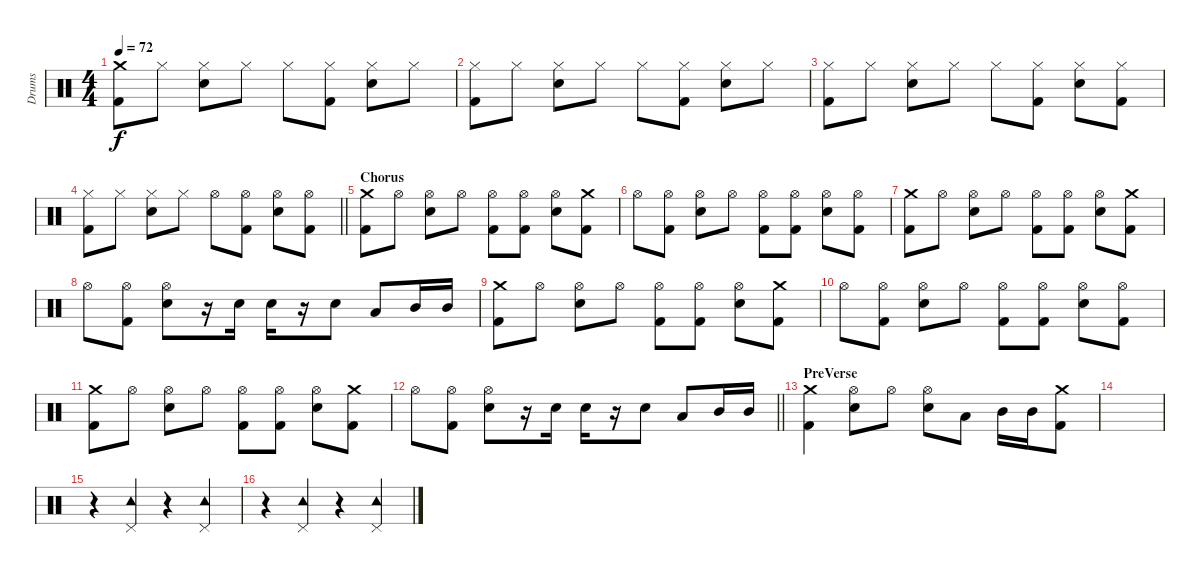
\track ("Drums" "Drums") {instrument percussion}
\staff {score}
\articulation defaults
\ts (4 4)
\tempo 72
\clef neutral
\ks c
("Crash medium (hit)" "Kick (hit) 2").8{dy f} "Hi-Hat (closed)".8 ("Hi-Hat (closed)" "Snare (hit) 2").8 "Hi-Hat (closed)".8 "Hi-Hat (closed)".8 ("Hi-Hat (closed)" "Kick (hit) 2").8 ("Hi-Hat (closed)" "Snare (hit) 2").8 "Hi-Hat (closed)".8 |
("Hi-Hat (closed)" "Kick (hit) 2").8 "Hi-Hat (closed)".8 ("Hi-Hat (closed)" "Snare (hit) 2").8 "Hi-Hat (closed)".8 "Hi-Hat (closed)".8 ("Hi-Hat (closed)" "Kick (hit) 2").8 ("Hi-Hat (closed)" "Snare (hit) 2").8 "Hi-Hat (closed)".8 |
("Hi-Hat (closed)" "Kick (hit) 2").8 "Hi-Hat (closed)".8 ("Hi-Hat (closed)" "Snare (hit) 2").8 "Hi-Hat (closed)".8 "Hi-Hat (closed)".8 ("Hi-Hat (closed)" "Kick (hit) 2").8 ("Hi-Hat (closed)" "Snare (hit) 2").8 ("Hi-Hat (closed)" "Kick (hit) 2").8 |
\barLineRight lightlight
("Hi-Hat (closed)" "Kick (hit) 2").8 "Hi-Hat (closed)".8 ("Hi-Hat (closed)" "Snare (hit) 2").8 "Hi-Hat (closed)".8 "Hi-Hat (open)".8 ("Hi-Hat (open)" "Kick (hit) 2").8 ("Hi-Hat (open)" "Snare (hit) 2").8 ("Hi-Hat (open)" "Kick (hit) 2").8 |
\section ("" "Chorus")
("Crash medium (hit)" "Kick (hit) 2").8 "Hi-Hat (open)".8 ("Hi-Hat (open)" "Snare (hit) 2").8 "Hi-Hat (open)".8 ("Hi-Hat (open)" "Kick (hit) 2").8 ("Hi-Hat (open)" "Kick (hit) 2").8 ("Hi-Hat (open)" "Snare (hit) 2").8 ("Crash medium (hit)" "Kick (hit) 2").8 |
"Hi-Hat (open)".8 ("Hi-Hat (open)" "Kick (hit) 2").8 ("Hi-Hat (open)" "Snare (hit) 2").8 "Hi-Hat (open)".8 ("Hi-Hat (open)" "Kick (hit) 2").8 ("Hi-Hat (open)" "Kick (hit) 2").8 ("Hi-Hat (open)" "Snare (hit) 2").8 ("Hi-Hat (open)" "Kick (hit) 2").8 |
("Crash medium (hit)" "Kick (hit) 2").8 "Hi-Hat (open)".8 ("Hi-Hat (open)" "Snare (hit) 2").8 "Hi-Hat (open)".8 ("Hi-Hat (open)" "Kick (hit) 2").8 ("Hi-Hat (open)" "Kick (hit) 2").8 ("Hi-Hat (open)" "Snare (hit) 2").8 ("Crash medium (hit)" "Kick (hit) 2").8 |
"Hi-Hat (open)".8 ("Hi-Hat (open)" "Kick (hit) 2").8 ("Hi-Hat (open)" "Snare (hit) 2").8 r.16 "Snare (hit) 2".16 "Snare (hit) 2".16 r.16 "Snare (hit) 2".8 "Low Tom (hit)".8 "Mid Tom (hit)".16 "Mid Tom (hit)".16 |
("Crash medium (hit)" "Kick (hit) 2").8 "Hi-Hat (open)".8 ("Hi-Hat (open)" "Snare (hit) 2").8 "Hi-Hat (open)".8 ("Hi-Hat (open)" "Kick (hit) 2").8 ("Hi-Hat (open)" "Kick (hit) 2").8 ("Hi-Hat (open)" "Snare (hit) 2").8 ("Crash medium (hit)" "Kick (hit) 2").8 |
"Hi-Hat (open)".8 ("Hi-Hat (open)" "Kick (hit) 2").8 ("Hi-Hat (open)" "Snare (hit) 2").8 "Hi-Hat (open)".8 ("Hi-Hat (open)" "Kick (hit) 2").8 ("Hi-Hat (open)" "Kick (hit) 2").8 ("Hi-Hat (open)" "Snare (hit) 2").8 ("Hi-Hat (open)" "Kick (hit) 2").8 |
("Crash medium (hit)" "Kick (hit) 2").8 "Hi-Hat (open)".8 ("Hi-Hat (open)" "Snare (hit) 2").8 "Hi-Hat (open)".8 ("Hi-Hat (open)" "Kick (hit) 2").8 ("Hi-Hat (open)" "Kick (hit) 2").8 ("Hi-Hat (open)" "Snare (hit) 2").8 ("Crash medium (hit)" "Kick (hit) 2").8 |
\barLineRight lightlight "Hi-Hat (open)".8
("Hi-Hat (open)" "Kick (hit) 2").8 ("Hi-Hat (open)" "Snare (hit) 2").8 r.16 "Snare (hit) 2".16 "Snare (hit) 2".16 r.16 "Snare (hit) 2".8 "Low Tom (hit)".8 "Mid Tom (hit)".16 "Mid Tom (hit)".16 |
\section ("" "PreVerse")
("Crash medium (hit)" "Kick (hit) 2").4 ("Hi-Hat (open)" "Snare (hit) 2").8 "Hi-Hat (open)".8 ("Hi-Hat (open)" "Snare (hit) 2").8 "Low Tom (hit)".8 "Mid Tom (hit)".16 "Mid Tom (hit)".16 ("Crash medium (hit)" "Kick (hit) 2").8 |
|
r.4 ("Pedal Hi-Hat (hit)" "Tambourine (hit)").4 r.4 ("Pedal Hi-Hat (hit)" "Tambourine (hit)").4 |
r.4 ("Pedal Hi-Hat (hit)" "Tambourine (hit)").4 r.4 ("Pedal Hi-Hat (hit)" "Tambourine (hit)").4
